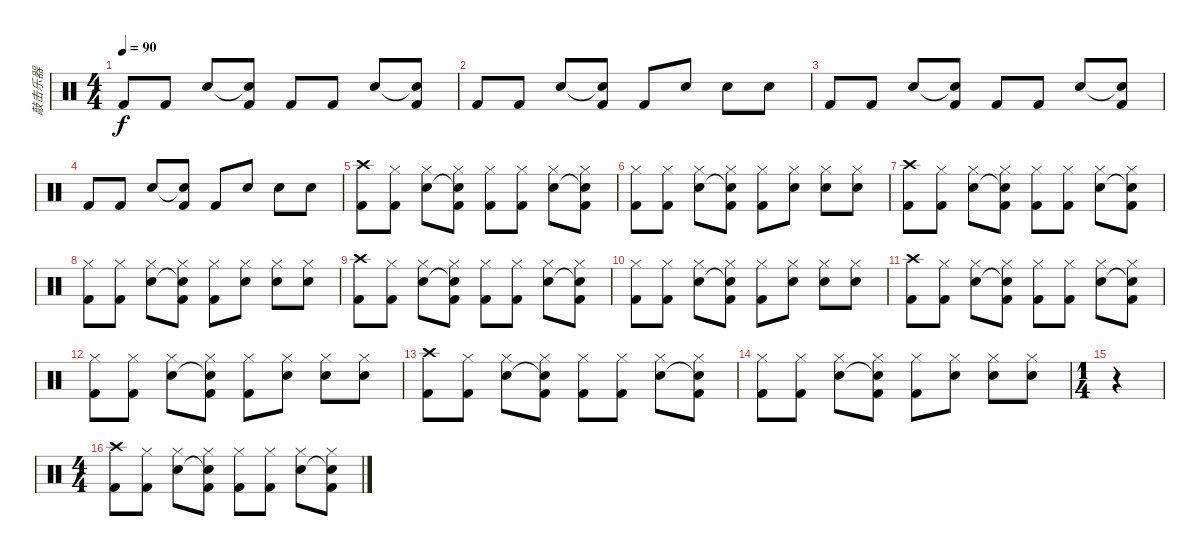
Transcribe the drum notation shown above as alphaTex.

\track ("敲击乐器" "敲击乐器") {instrument percussion}
\staff {score}
\articulation defaults
\ts (4 4)
\tempo 90
\clef neutral
\ks c "Kick (hit) 2".8{dy f} "Kick (hit) 2".8 "Snare (hit) 2".8
("Snare (hit)"{t} "Kick (hit) 2").8 "Kick (hit) 2".8 "Kick (hit) 2".8 "Snare (hit) 2".8 ("Snare (hit)"{t} "Kick (hit) 2").8 |
"Kick (hit) 2".8 "Kick (hit) 2".8 "Snare (hit) 2".8 ("Snare (hit)"{t} "Kick (hit) 2").8 "Kick (hit) 2".8 "Snare (hit) 2".8 "Snare (hit) 2".8 "Snare (hit) 2".8 |
"Kick (hit) 2".8 "Kick (hit) 2".8 "Snare (hit) 2".8 ("Snare (hit)"{t} "Kick (hit) 2").8 "Kick (hit) 2".8 "Kick (hit) 2".8 "Snare (hit) 2".8 ("Snare (hit)"{t} "Kick (hit) 2").8 |
"Kick (hit) 2".8 "Kick (hit) 2".8 "Snare (hit) 2".8 ("Snare (hit)"{t} "Kick (hit) 2").8 "Kick (hit) 2".8 "Snare (hit) 2".8 "Snare (hit) 2".8 "Snare (hit) 2".8 |
("Crash high (hit)" "Kick (hit) 2").8 ("Hi-Hat (closed)" "Kick (hit) 2").8 ("Hi-Hat (closed)" "Snare (hit) 2").8 ("Hi-Hat (closed)" "Snare (hit)"{t} "Kick (hit) 2").8 ("Hi-Hat (closed)" "Kick (hit) 2").8 ("Hi-Hat (closed)" "Kick (hit) 2").8 ("Hi-Hat (closed)" "Snare (hit) 2").8 ("Hi-Hat (closed)" "Snare (hit)"{t} "Kick (hit) 2").8 |
("Hi-Hat (closed)" "Kick (hit) 2").8 ("Hi-Hat (closed)" "Kick (hit) 2").8 ("Hi-Hat (closed)" "Snare (hit) 2").8 ("Hi-Hat (closed)" "Snare (hit)"{t} "Kick (hit) 2").8 ("Hi-Hat (closed)" "Kick (hit) 2").8 ("Hi-Hat (closed)" "Snare (hit) 2").8 ("Hi-Hat (closed)" "Snare (hit) 2").8 ("Hi-Hat (closed)" "Snare (hit) 2").8 |
("Crash high (hit)" "Kick (hit) 2").8 ("Hi-Hat (closed)" "Kick (hit) 2").8 ("Hi-Hat (closed)" "Snare (hit) 2").8 ("Hi-Hat (closed)" "Snare (hit)"{t} "Kick (hit) 2").8 ("Hi-Hat (closed)" "Kick (hit) 2").8 ("Hi-Hat (closed)" "Kick (hit) 2").8 ("Hi-Hat (closed)" "Snare (hit) 2").8 ("Hi-Hat (closed)" "Snare (hit)"{t} "Kick (hit) 2").8 |
("Hi-Hat (closed)" "Kick (hit) 2").8 ("Hi-Hat (closed)" "Kick (hit) 2").8 ("Hi-Hat (closed)" "Snare (hit) 2").8 ("Hi-Hat (closed)" "Snare (hit)"{t} "Kick (hit) 2").8 ("Hi-Hat (closed)" "Kick (hit) 2").8 ("Hi-Hat (closed)" "Snare (hit) 2").8 ("Hi-Hat (closed)" "Snare (hit) 2").8 ("Hi-Hat (closed)" "Snare (hit) 2").8 |
("Crash high (hit)" "Kick (hit) 2").8 ("Hi-Hat (closed)" "Kick (hit) 2").8 ("Hi-Hat (closed)" "Snare (hit) 2").8 ("Hi-Hat (closed)" "Snare (hit)"{t} "Kick (hit) 2").8 ("Hi-Hat (closed)" "Kick (hit) 2").8 ("Hi-Hat (closed)" "Kick (hit) 2").8 ("Hi-Hat (closed)" "Snare (hit) 2").8 ("Hi-Hat (closed)" "Snare (hit)"{t} "Kick (hit) 2").8 |
("Hi-Hat (closed)" "Kick (hit) 2").8 ("Hi-Hat (closed)" "Kick (hit) 2").8 ("Hi-Hat (closed)" "Snare (hit) 2").8 ("Hi-Hat (closed)" "Snare (hit)"{t} "Kick (hit) 2").8 ("Hi-Hat (closed)" "Kick (hit) 2").8 ("Hi-Hat (closed)" "Snare (hit) 2").8 ("Hi-Hat (closed)" "Snare (hit) 2").8 ("Hi-Hat (closed)" "Snare (hit) 2").8 |
("Crash high (hit)" "Kick (hit) 2").8 ("Hi-Hat (closed)" "Kick (hit) 2").8 ("Hi-Hat (closed)" "Snare (hit) 2").8 ("Hi-Hat (closed)" "Snare (hit)"{t} "Kick (hit) 2").8 ("Hi-Hat (closed)" "Kick (hit) 2").8 ("Hi-Hat (closed)" "Kick (hit) 2").8 ("Hi-Hat (closed)" "Snare (hit) 2").8 ("Hi-Hat (closed)" "Snare (hit)"{t} "Kick (hit) 2").8 |
("Hi-Hat (closed)" "Kick (hit) 2").8 ("Hi-Hat (closed)" "Kick (hit) 2").8 ("Hi-Hat (closed)" "Snare (hit) 2").8 ("Hi-Hat (closed)" "Snare (hit)"{t} "Kick (hit) 2").8 ("Hi-Hat (closed)" "Kick (hit) 2").8 ("Hi-Hat (closed)" "Snare (hit) 2").8 ("Hi-Hat (closed)" "Snare (hit) 2").8 ("Hi-Hat (closed)" "Snare (hit) 2").8 |
("Crash high (hit)" "Kick (hit) 2").8 ("Hi-Hat (closed)" "Kick (hit) 2").8 ("Hi-Hat (closed)" "Snare (hit) 2").8 ("Hi-Hat (closed)" "Snare (hit)"{t} "Kick (hit) 2").8 ("Hi-Hat (closed)" "Kick (hit) 2").8 ("Hi-Hat (closed)" "Kick (hit) 2").8 ("Hi-Hat (closed)" "Snare (hit) 2").8 ("Hi-Hat (closed)" "Snare (hit)"{t} "Kick (hit) 2").8 |
("Hi-Hat (closed)" "Kick (hit) 2").8 ("Hi-Hat (closed)" "Kick (hit) 2").8 ("Hi-Hat (closed)" "Snare (hit) 2").8 ("Hi-Hat (closed)" "Snare (hit)"{t} "Kick (hit) 2").8 ("Hi-Hat (closed)" "Kick (hit) 2").8 ("Hi-Hat (closed)" "Snare (hit) 2").8 ("Hi-Hat (closed)" "Snare (hit) 2").8 ("Hi-Hat (closed)" "Snare (hit) 2").8 |
\ts (1 4)
r.4 |
\ts (4 4)
("Crash high (hit)" "Kick (hit) 2").8 ("Hi-Hat (closed)" "Kick (hit) 2").8 ("Hi-Hat (closed)" "Snare (hit) 2").8 ("Hi-Hat (closed)" "Snare (hit)"{t} "Kick (hit) 2").8 ("Hi-Hat (closed)" "Kick (hit) 2").8 ("Hi-Hat (closed)" "Kick (hit) 2").8 ("Hi-Hat (closed)" "Snare (hit) 2").8 ("Hi-Hat (closed)" "Snare (hit)"{t} "Kick (hit) 2").8
